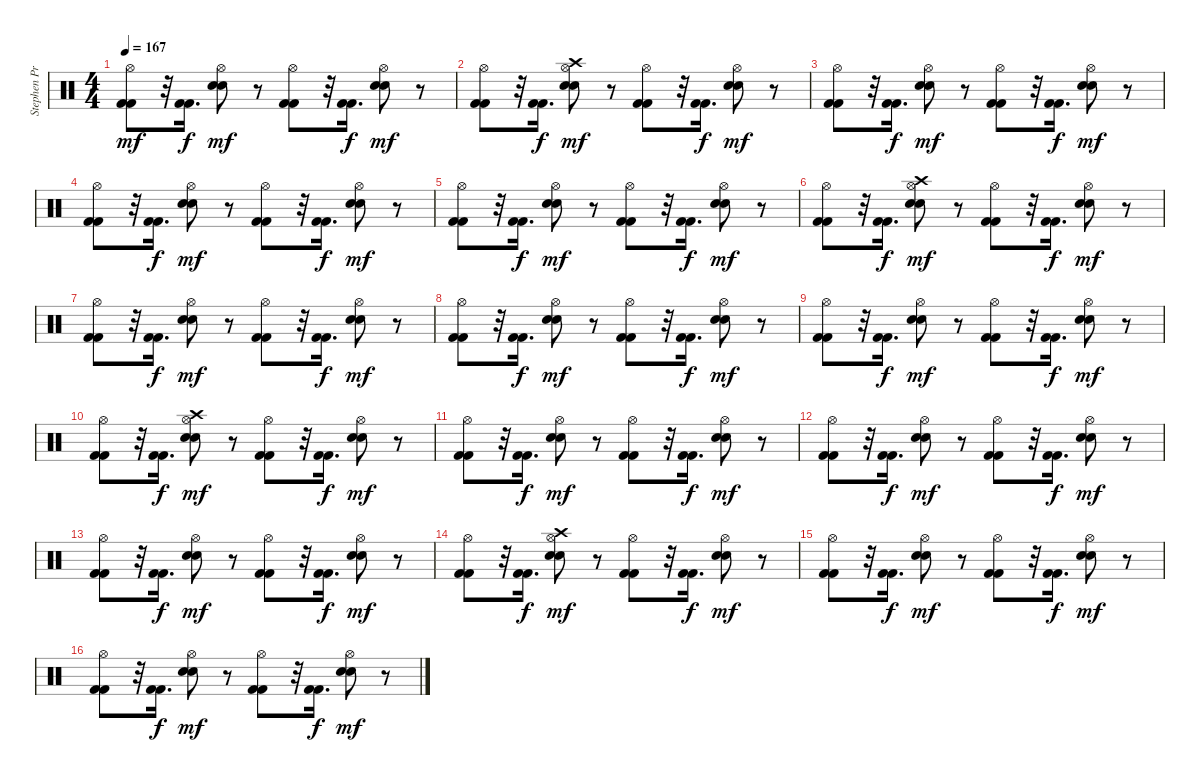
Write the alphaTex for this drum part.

\track ("Stephen Priestly  (Drums)" "Stephen Pr") {instrument percussion}
\staff {score}
\articulation defaults
\ts (4 4)
\tempo 167
\clef neutral
\ks c
("Hi-Hat (open)" "Kick (hit) 2" "Kick (hit) 2").8{dy mf} r.32 ("Kick (hit) 2" "Kick (hit) 2").16{d dy f} ("Hi-Hat (open)" "Electric Snare (hit)" "Electric Snare (hit)").8{dy mf} r.8 ("Hi-Hat (open)" "Kick (hit) 2" "Kick (hit) 2").8 r.32 ("Kick (hit) 2" "Kick (hit) 2").16{d dy f} ("Hi-Hat (open)" "Electric Snare (hit)" "Electric Snare (hit)").8{dy mf} r.8 |
("Hi-Hat (open)" "Kick (hit) 2" "Kick (hit) 2").8 r.32 ("Kick (hit) 2" "Kick (hit) 2").16{d dy f} ("Crash high (hit)" "Hi-Hat (open)" "Electric Snare (hit)" "Electric Snare (hit)").8{dy mf} r.8 ("Hi-Hat (open)" "Kick (hit) 2" "Kick (hit) 2").8 r.32 ("Kick (hit) 2" "Kick (hit) 2").16{d dy f} ("Hi-Hat (open)" "Electric Snare (hit)" "Electric Snare (hit)").8{dy mf} r.8 |
("Hi-Hat (open)" "Kick (hit) 2" "Kick (hit) 2").8 r.32 ("Kick (hit) 2" "Kick (hit) 2").16{d dy f} ("Hi-Hat (open)" "Electric Snare (hit)" "Electric Snare (hit)").8{dy mf} r.8 ("Hi-Hat (open)" "Kick (hit) 2" "Kick (hit) 2").8 r.32 ("Kick (hit) 2" "Kick (hit) 2").16{d dy f} ("Hi-Hat (open)" "Electric Snare (hit)" "Electric Snare (hit)").8{dy mf} r.8 |
("Hi-Hat (open)" "Kick (hit) 2" "Kick (hit) 2").8 r.32 ("Kick (hit) 2" "Kick (hit) 2").16{d dy f} ("Hi-Hat (open)" "Electric Snare (hit)" "Electric Snare (hit)").8{dy mf} r.8 ("Hi-Hat (open)" "Kick (hit) 2" "Kick (hit) 2").8 r.32 ("Kick (hit) 2" "Kick (hit) 2").16{d dy f} ("Hi-Hat (open)" "Electric Snare (hit)" "Electric Snare (hit)").8{dy mf} r.8 |
("Hi-Hat (open)" "Kick (hit) 2" "Kick (hit) 2").8 r.32 ("Kick (hit) 2" "Kick (hit) 2").16{d dy f} ("Hi-Hat (open)" "Electric Snare (hit)" "Electric Snare (hit)").8{dy mf} r.8 ("Hi-Hat (open)" "Kick (hit) 2" "Kick (hit) 2").8 r.32 ("Kick (hit) 2" "Kick (hit) 2").16{d dy f} ("Hi-Hat (open)" "Electric Snare (hit)" "Electric Snare (hit)").8{dy mf} r.8 |
("Hi-Hat (open)" "Kick (hit) 2" "Kick (hit) 2").8 r.32 ("Kick (hit) 2" "Kick (hit) 2").16{d dy f} ("Crash high (hit)" "Hi-Hat (open)" "Electric Snare (hit)" "Electric Snare (hit)").8{dy mf} r.8 ("Hi-Hat (open)" "Kick (hit) 2" "Kick (hit) 2").8 r.32 ("Kick (hit) 2" "Kick (hit) 2").16{d dy f} ("Hi-Hat (open)" "Electric Snare (hit)" "Electric Snare (hit)").8{dy mf} r.8 |
("Hi-Hat (open)" "Kick (hit) 2" "Kick (hit) 2").8 r.32 ("Kick (hit) 2" "Kick (hit) 2").16{d dy f} ("Hi-Hat (open)" "Electric Snare (hit)" "Electric Snare (hit)").8{dy mf} r.8 ("Hi-Hat (open)" "Kick (hit) 2" "Kick (hit) 2").8 r.32 ("Kick (hit) 2" "Kick (hit) 2").16{d dy f} ("Hi-Hat (open)" "Electric Snare (hit)" "Electric Snare (hit)").8{dy mf} r.8 |
("Hi-Hat (open)" "Kick (hit) 2" "Kick (hit) 2").8 r.32 ("Kick (hit) 2" "Kick (hit) 2").16{d dy f} ("Hi-Hat (open)" "Electric Snare (hit)" "Electric Snare (hit)").8{dy mf} r.8 ("Hi-Hat (open)" "Kick (hit) 2" "Kick (hit) 2").8 r.32 ("Kick (hit) 2" "Kick (hit) 2").16{d dy f} ("Hi-Hat (open)" "Electric Snare (hit)" "Electric Snare (hit)").8{dy mf} r.8 |
("Hi-Hat (open)" "Kick (hit) 2" "Kick (hit) 2").8 r.32 ("Kick (hit) 2" "Kick (hit) 2").16{d dy f} ("Hi-Hat (open)" "Electric Snare (hit)" "Electric Snare (hit)").8{dy mf} r.8 ("Hi-Hat (open)" "Kick (hit) 2" "Kick (hit) 2").8 r.32 ("Kick (hit) 2" "Kick (hit) 2").16{d dy f} ("Hi-Hat (open)" "Electric Snare (hit)" "Electric Snare (hit)").8{dy mf} r.8 |
("Hi-Hat (open)" "Kick (hit) 2" "Kick (hit) 2").8 r.32 ("Kick (hit) 2" "Kick (hit) 2").16{d dy f} ("Crash high (hit)" "Hi-Hat (open)" "Electric Snare (hit)" "Electric Snare (hit)").8{dy mf} r.8 ("Hi-Hat (open)" "Kick (hit) 2" "Kick (hit) 2").8 r.32 ("Kick (hit) 2" "Kick (hit) 2").16{d dy f} ("Hi-Hat (open)" "Electric Snare (hit)" "Electric Snare (hit)").8{dy mf} r.8 |
("Hi-Hat (open)" "Kick (hit) 2" "Kick (hit) 2").8 r.32 ("Kick (hit) 2" "Kick (hit) 2").16{d dy f} ("Hi-Hat (open)" "Electric Snare (hit)" "Electric Snare (hit)").8{dy mf} r.8 ("Hi-Hat (open)" "Kick (hit) 2" "Kick (hit) 2").8 r.32 ("Kick (hit) 2" "Kick (hit) 2").16{d dy f} ("Hi-Hat (open)" "Electric Snare (hit)" "Electric Snare (hit)").8{dy mf} r.8 |
("Hi-Hat (open)" "Kick (hit) 2" "Kick (hit) 2").8 r.32 ("Kick (hit) 2" "Kick (hit) 2").16{d dy f} ("Hi-Hat (open)" "Electric Snare (hit)" "Electric Snare (hit)").8{dy mf} r.8 ("Hi-Hat (open)" "Kick (hit) 2" "Kick (hit) 2").8 r.32 ("Kick (hit) 2" "Kick (hit) 2").16{d dy f} ("Hi-Hat (open)" "Electric Snare (hit)" "Electric Snare (hit)").8{dy mf} r.8 |
("Hi-Hat (open)" "Kick (hit) 2" "Kick (hit) 2").8 r.32 ("Kick (hit) 2" "Kick (hit) 2").16{d dy f} ("Hi-Hat (open)" "Electric Snare (hit)" "Electric Snare (hit)").8{dy mf} r.8 ("Hi-Hat (open)" "Kick (hit) 2" "Kick (hit) 2").8 r.32 ("Kick (hit) 2" "Kick (hit) 2").16{d dy f} ("Hi-Hat (open)" "Electric Snare (hit)" "Electric Snare (hit)").8{dy mf} r.8 |
("Hi-Hat (open)" "Kick (hit) 2" "Kick (hit) 2").8 r.32 ("Kick (hit) 2" "Kick (hit) 2").16{d dy f} ("Crash high (hit)" "Hi-Hat (open)" "Electric Snare (hit)" "Electric Snare (hit)").8{dy mf} r.8 ("Hi-Hat (open)" "Kick (hit) 2" "Kick (hit) 2").8 r.32 ("Kick (hit) 2" "Kick (hit) 2").16{d dy f} ("Hi-Hat (open)" "Electric Snare (hit)" "Electric Snare (hit)").8{dy mf} r.8 |
("Hi-Hat (open)" "Kick (hit) 2" "Kick (hit) 2").8 r.32 ("Kick (hit) 2" "Kick (hit) 2").16{d dy f} ("Hi-Hat (open)" "Electric Snare (hit)" "Electric Snare (hit)").8{dy mf} r.8 ("Hi-Hat (open)" "Kick (hit) 2" "Kick (hit) 2").8 r.32 ("Kick (hit) 2" "Kick (hit) 2").16{d dy f} ("Hi-Hat (open)" "Electric Snare (hit)" "Electric Snare (hit)").8{dy mf} r.8 |
("Hi-Hat (open)" "Kick (hit) 2" "Kick (hit) 2").8 r.32 ("Kick (hit) 2" "Kick (hit) 2").16{d dy f} ("Hi-Hat (open)" "Electric Snare (hit)" "Electric Snare (hit)").8{dy mf} r.8 ("Hi-Hat (open)" "Kick (hit) 2" "Kick (hit) 2").8 r.32 ("Kick (hit) 2" "Kick (hit) 2").16{d dy f} ("Hi-Hat (open)" "Electric Snare (hit)" "Electric Snare (hit)").8{dy mf} r.8
